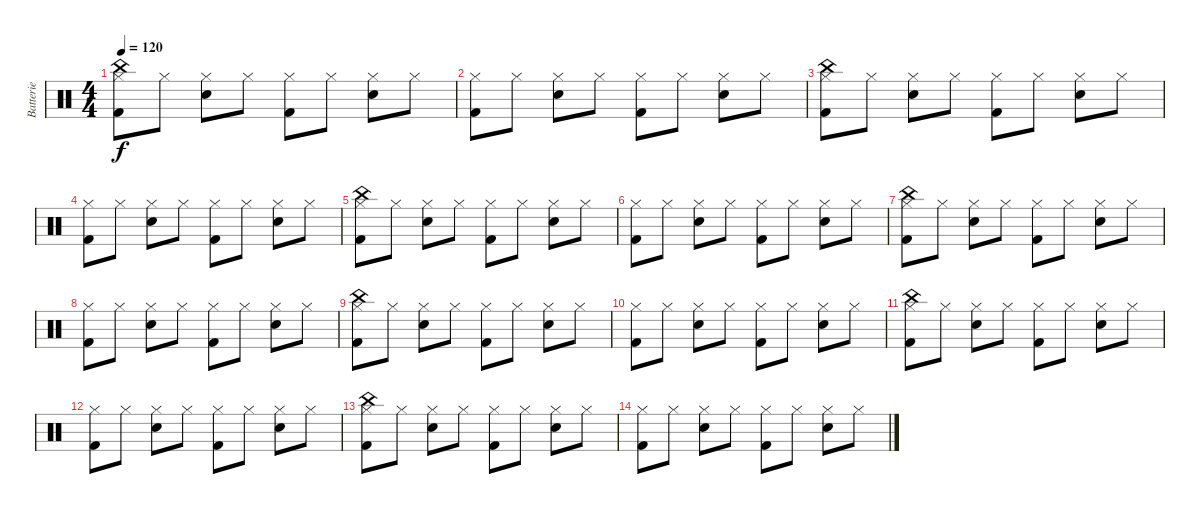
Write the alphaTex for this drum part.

\track ("Batterie" "Batterie") {instrument percussion}
\staff {score}
\articulation defaults
\ts (4 4)
\tempo 120
\clef neutral
\ks c
("Hi-Hat (closed)" "Kick (hit) 2" "China (hit)").8{dy f} "Hi-Hat (closed)".8 ("Hi-Hat (closed)" "Electric Snare (hit)").8 "Hi-Hat (closed)".8 ("Hi-Hat (closed)" "Kick (hit) 2").8 "Hi-Hat (closed)".8 ("Hi-Hat (closed)" "Electric Snare (hit)").8 "Hi-Hat (closed)".8 |
("Hi-Hat (closed)" "Kick (hit) 2").8 "Hi-Hat (closed)".8 ("Hi-Hat (closed)" "Electric Snare (hit)").8 "Hi-Hat (closed)".8 ("Hi-Hat (closed)" "Kick (hit) 2").8 "Hi-Hat (closed)".8 ("Hi-Hat (closed)" "Electric Snare (hit)").8 "Hi-Hat (closed)".8 |
("Hi-Hat (closed)" "Kick (hit) 2" "China (hit)").8 "Hi-Hat (closed)".8 ("Hi-Hat (closed)" "Electric Snare (hit)").8 "Hi-Hat (closed)".8 ("Hi-Hat (closed)" "Kick (hit) 2").8 "Hi-Hat (closed)".8 ("Hi-Hat (closed)" "Electric Snare (hit)").8 "Hi-Hat (closed)".8 |
("Hi-Hat (closed)" "Kick (hit) 2").8 "Hi-Hat (closed)".8 ("Hi-Hat (closed)" "Electric Snare (hit)").8 "Hi-Hat (closed)".8 ("Hi-Hat (closed)" "Kick (hit) 2").8 "Hi-Hat (closed)".8 ("Hi-Hat (closed)" "Electric Snare (hit)").8 "Hi-Hat (closed)".8 |
("Hi-Hat (closed)" "Kick (hit) 2" "China (hit)").8 "Hi-Hat (closed)".8 ("Hi-Hat (closed)" "Electric Snare (hit)").8 "Hi-Hat (closed)".8 ("Hi-Hat (closed)" "Kick (hit) 2").8 "Hi-Hat (closed)".8 ("Hi-Hat (closed)" "Electric Snare (hit)").8 "Hi-Hat (closed)".8 |
("Hi-Hat (closed)" "Kick (hit) 2").8 "Hi-Hat (closed)".8 ("Hi-Hat (closed)" "Electric Snare (hit)").8 "Hi-Hat (closed)".8 ("Hi-Hat (closed)" "Kick (hit) 2").8 "Hi-Hat (closed)".8 ("Hi-Hat (closed)" "Electric Snare (hit)").8 "Hi-Hat (closed)".8 |
("Hi-Hat (closed)" "Kick (hit) 2" "China (hit)").8 "Hi-Hat (closed)".8 ("Hi-Hat (closed)" "Electric Snare (hit)").8 "Hi-Hat (closed)".8 ("Hi-Hat (closed)" "Kick (hit) 2").8 "Hi-Hat (closed)".8 ("Hi-Hat (closed)" "Electric Snare (hit)").8 "Hi-Hat (closed)".8 |
("Hi-Hat (closed)" "Kick (hit) 2").8 "Hi-Hat (closed)".8 ("Hi-Hat (closed)" "Electric Snare (hit)").8 "Hi-Hat (closed)".8 ("Hi-Hat (closed)" "Kick (hit) 2").8 "Hi-Hat (closed)".8 ("Hi-Hat (closed)" "Electric Snare (hit)").8 "Hi-Hat (closed)".8 |
("Hi-Hat (closed)" "Kick (hit) 2" "China (hit)").8 "Hi-Hat (closed)".8 ("Hi-Hat (closed)" "Electric Snare (hit)").8 "Hi-Hat (closed)".8 ("Hi-Hat (closed)" "Kick (hit) 2").8 "Hi-Hat (closed)".8 ("Hi-Hat (closed)" "Electric Snare (hit)").8 "Hi-Hat (closed)".8 |
("Hi-Hat (closed)" "Kick (hit) 2").8 "Hi-Hat (closed)".8 ("Hi-Hat (closed)" "Electric Snare (hit)").8 "Hi-Hat (closed)".8 ("Hi-Hat (closed)" "Kick (hit) 2").8 "Hi-Hat (closed)".8 ("Hi-Hat (closed)" "Electric Snare (hit)").8 "Hi-Hat (closed)".8 |
("Hi-Hat (closed)" "Kick (hit) 2" "China (hit)").8 "Hi-Hat (closed)".8 ("Hi-Hat (closed)" "Electric Snare (hit)").8 "Hi-Hat (closed)".8 ("Hi-Hat (closed)" "Kick (hit) 2").8 "Hi-Hat (closed)".8 ("Hi-Hat (closed)" "Electric Snare (hit)").8 "Hi-Hat (closed)".8 |
("Hi-Hat (closed)" "Kick (hit) 2").8 "Hi-Hat (closed)".8 ("Hi-Hat (closed)" "Electric Snare (hit)").8 "Hi-Hat (closed)".8 ("Hi-Hat (closed)" "Kick (hit) 2").8 "Hi-Hat (closed)".8 ("Hi-Hat (closed)" "Electric Snare (hit)").8 "Hi-Hat (closed)".8 |
("Hi-Hat (closed)" "Kick (hit) 2" "China (hit)").8 "Hi-Hat (closed)".8 ("Hi-Hat (closed)" "Electric Snare (hit)").8 "Hi-Hat (closed)".8 ("Hi-Hat (closed)" "Kick (hit) 2").8 "Hi-Hat (closed)".8 ("Hi-Hat (closed)" "Electric Snare (hit)").8 "Hi-Hat (closed)".8 |
("Hi-Hat (closed)" "Kick (hit) 2").8 "Hi-Hat (closed)".8 ("Hi-Hat (closed)" "Electric Snare (hit)").8 "Hi-Hat (closed)".8 ("Hi-Hat (closed)" "Kick (hit) 2").8 "Hi-Hat (closed)".8 ("Hi-Hat (closed)" "Electric Snare (hit)").8 "Hi-Hat (closed)".8
